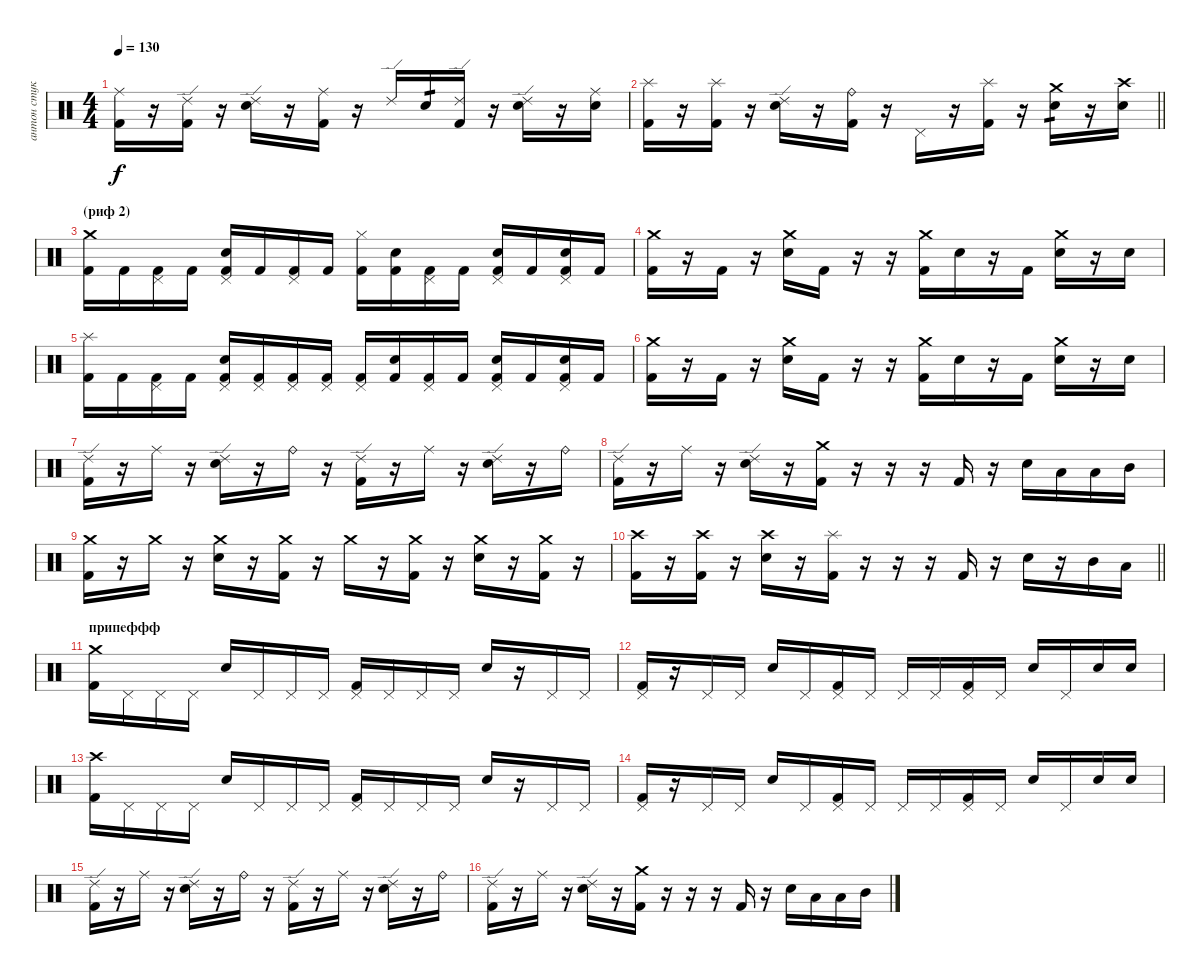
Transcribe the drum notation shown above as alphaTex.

\track ("антон стукачь" "антон стук") {instrument percussion}
\staff {score}
\articulation defaults
\ts (4 4)
\tempo 130
\clef neutral
\ks c
("Ride (middle)" "Kick (hit) 2").16{dy f} r.16 ("Ride (edge) 2" "Kick (hit) 2").16 r.16 ("Ride (edge) 2" "Electric Snare (hit)").16 r.16 ("Ride (middle)" "Kick (hit) 2").16 r.16 "Ride (edge) 2".16 "Electric Snare (hit)".16{tp 1} ("Ride (edge) 2" "Kick (hit) 2").16 r.16 ("Ride (edge) 2" "Electric Snare (hit)").16 r.16 ("Ride (middle)" "Electric Snare (hit)").16 |
\barLineRight lightlight
("Splash (hit)" "Kick (hit) 2").16 r.16 ("Splash (hit)" "Kick (hit) 2").16 r.16 ("Ride (edge) 2" "Electric Snare (hit)").16 r.16 ("Ride (bell)" "Kick (hit) 2").16 r.16 "Pedal Hi-Hat (hit)".16 r.16 ("Splash (hit)" "Kick (hit) 2").16 r.16 ("Crash medium (hit)" "Electric Snare (hit)").16{tp 1} r.16 ("Crash high (hit)" "Electric Snare (hit)").16 |
\section ("" "(риф 2)")
("Crash medium (hit)" "Kick (hit) 2").16 "Kick (hit) 2".16 ("Pedal Hi-Hat (hit)" "Kick (hit) 2").16 "Kick (hit) 2".16 ("Pedal Hi-Hat (hit)" "Electric Snare (hit)" "Kick (hit) 2").16 "Kick (hit) 2".16 ("Pedal Hi-Hat (hit)" "Kick (hit) 2").16 "Kick (hit) 2".16 ("Hi-Hat (closed)" "Kick (hit) 2").16 ("Electric Snare (hit)" "Kick (hit) 2").16 ("Pedal Hi-Hat (hit)" "Kick (hit) 2").16 "Kick (hit) 2".16 ("Pedal Hi-Hat (hit)" "Electric Snare (hit)" "Kick (hit) 2").16 "Kick (hit) 2".16 ("Pedal Hi-Hat (hit)" "Electric Snare (hit)" "Kick (hit) 2").16 "Kick (hit) 2".16 |
("Crash medium (hit)" "Kick (hit) 2").16 r.16 "Kick (hit) 2".16 r.16 ("Crash medium (hit)" "Electric Snare (hit)").16 "Kick (hit) 2".16 r.16 r.16 ("Crash medium (hit)" "Kick (hit) 2").16 "Electric Snare (hit)".16 r.16 "Kick (hit) 2".16 ("Crash medium (hit)" "Electric Snare (hit)").16 r.16 "Electric Snare (hit)".16 |
("Splash (hit)" "Kick (hit) 2").16 "Kick (hit) 2".16 ("Pedal Hi-Hat (hit)" "Kick (hit) 2").16 "Kick (hit) 2".16 ("Pedal Hi-Hat (hit)" "Electric Snare (hit)" "Kick (hit) 2").16 ("Pedal Hi-Hat (hit)" "Kick (hit) 2").16 ("Pedal Hi-Hat (hit)" "Kick (hit) 2").16 ("Pedal Hi-Hat (hit)" "Kick (hit) 2").16 ("Pedal Hi-Hat (hit)" "Kick (hit) 2").16 ("Electric Snare (hit)" "Kick (hit) 2").16 ("Pedal Hi-Hat (hit)" "Kick (hit) 2").16 "Kick (hit) 2".16 ("Pedal Hi-Hat (hit)" "Electric Snare (hit)" "Kick (hit) 2").16 "Kick (hit) 2".16 ("Pedal Hi-Hat (hit)" "Electric Snare (hit)" "Kick (hit) 2").16 "Kick (hit) 2".16 |
("Crash medium (hit)" "Kick (hit) 2").16 r.16 "Kick (hit) 2".16 r.16 ("Crash medium (hit)" "Electric Snare (hit)").16 "Kick (hit) 2".16 r.16 r.16 ("Crash medium (hit)" "Kick (hit) 2").16 "Electric Snare (hit)".16 r.16 "Kick (hit) 2".16 ("Crash medium (hit)" "Electric Snare (hit)").16 r.16 "Electric Snare (hit)".16 |
("Ride (edge) 2" "Kick (hit) 2").16 r.16 "Ride (middle)".16 r.16 ("Ride (edge) 2" "Electric Snare (hit)").16 r.16 "Ride (bell)".16 r.16 ("Ride (edge) 2" "Kick (hit) 2").16 r.16 "Ride (middle)".16 r.16 ("Ride (edge) 2" "Electric Snare (hit)").16 r.16 "Ride (bell)".16 |
("Ride (edge) 2" "Kick (hit) 2").16 r.16 "Ride (middle)".16 r.16 ("Ride (edge) 2" "Electric Snare (hit)").16 r.16 ("Crash medium (hit)" "Kick (hit) 2").16 r.16 r.16 r.16 "Kick (hit) 2".16 r.16 "Electric Snare (hit)".16 "Low Tom (hit)".16 "Low Tom (hit)".16 "Mid Tom (hit)".16 |
("Crash medium (hit)" "Kick (hit) 2").16 r.16 "Crash medium (hit)".16 r.16 ("Crash medium (hit)" "Electric Snare (hit)").16 r.16 ("Crash medium (hit)" "Kick (hit) 2").16 r.16 "Crash medium (hit)".16 r.16 ("Crash medium (hit)" "Kick (hit) 2").16 r.16 ("Crash medium (hit)" "Electric Snare (hit)").16 r.16 ("Crash medium (hit)" "Kick (hit) 2").16 r.16 |
\barLineRight lightlight
("Crash high (hit)" "Kick (hit) 2").16 r.16 ("Crash high (hit)" "Kick (hit) 2").16 r.16 ("Crash high (hit)" "Electric Snare (hit)").16 r.16 ("Splash (hit)" "Kick (hit) 2").16 r.16 r.16 r.16 "Kick (hit) 2".16 r.16 "Electric Snare (hit)".16 r.16 "Mid Tom (hit)".16 "Low Tom (hit)".16 |
\section ("" "припеффф")
("Crash medium (hit)" "Kick (hit) 2").16 "Pedal Hi-Hat (hit)".16 "Pedal Hi-Hat (hit)".16 "Pedal Hi-Hat (hit)".16 "Electric Snare (hit)".16 "Pedal Hi-Hat (hit)".16 "Pedal Hi-Hat (hit)".16 "Pedal Hi-Hat (hit)".16 ("Pedal Hi-Hat (hit)" "Kick (hit) 2").16 "Pedal Hi-Hat (hit)".16 "Pedal Hi-Hat (hit)".16 "Pedal Hi-Hat (hit)".16 "Electric Snare (hit)".16 r.16 "Pedal Hi-Hat (hit)".16 "Pedal Hi-Hat (hit)".16 |
("Pedal Hi-Hat (hit)" "Kick (hit) 2").16 r.16 "Pedal Hi-Hat (hit)".16 "Pedal Hi-Hat (hit)".16 "Electric Snare (hit)".16 "Pedal Hi-Hat (hit)".16 ("Pedal Hi-Hat (hit)" "Kick (hit) 2").16 "Pedal Hi-Hat (hit)".16 "Pedal Hi-Hat (hit)".16 "Pedal Hi-Hat (hit)".16 ("Pedal Hi-Hat (hit)" "Kick (hit) 2").16 "Pedal Hi-Hat (hit)".16 "Electric Snare (hit)".16 "Pedal Hi-Hat (hit)".16 "Electric Snare (hit)".16 "Electric Snare (hit)".16 |
("Crash high (hit)" "Kick (hit) 2").16 "Pedal Hi-Hat (hit)".16 "Pedal Hi-Hat (hit)".16 "Pedal Hi-Hat (hit)".16 "Electric Snare (hit)".16 "Pedal Hi-Hat (hit)".16 "Pedal Hi-Hat (hit)".16 "Pedal Hi-Hat (hit)".16 ("Pedal Hi-Hat (hit)" "Kick (hit) 2").16 "Pedal Hi-Hat (hit)".16 "Pedal Hi-Hat (hit)".16 "Pedal Hi-Hat (hit)".16 "Electric Snare (hit)".16 r.16 "Pedal Hi-Hat (hit)".16 "Pedal Hi-Hat (hit)".16 |
("Pedal Hi-Hat (hit)" "Kick (hit) 2").16 r.16 "Pedal Hi-Hat (hit)".16 "Pedal Hi-Hat (hit)".16 "Electric Snare (hit)".16 "Pedal Hi-Hat (hit)".16 ("Pedal Hi-Hat (hit)" "Kick (hit) 2").16 "Pedal Hi-Hat (hit)".16 "Pedal Hi-Hat (hit)".16 "Pedal Hi-Hat (hit)".16 ("Pedal Hi-Hat (hit)" "Kick (hit) 2").16 "Pedal Hi-Hat (hit)".16 "Electric Snare (hit)".16 "Pedal Hi-Hat (hit)".16 "Electric Snare (hit)".16 "Electric Snare (hit)".16 |
("Ride (edge) 2" "Kick (hit) 2").16 r.16 "Ride (middle)".16 r.16 ("Ride (edge) 2" "Electric Snare (hit)").16 r.16 "Ride (bell)".16 r.16 ("Ride (edge) 2" "Kick (hit) 2").16 r.16 "Ride (middle)".16 r.16 ("Ride (edge) 2" "Electric Snare (hit)").16 r.16 "Ride (bell)".16 |
("Ride (edge) 2" "Kick (hit) 2").16 r.16 "Ride (middle)".16 r.16 ("Ride (edge) 2" "Electric Snare (hit)").16 r.16 ("Crash medium (hit)" "Kick (hit) 2").16 r.16 r.16 r.16 "Kick (hit) 2".16 r.16 "Electric Snare (hit)".16 "Low Tom (hit)".16 "Low Tom (hit)".16 "Mid Tom (hit)".16
